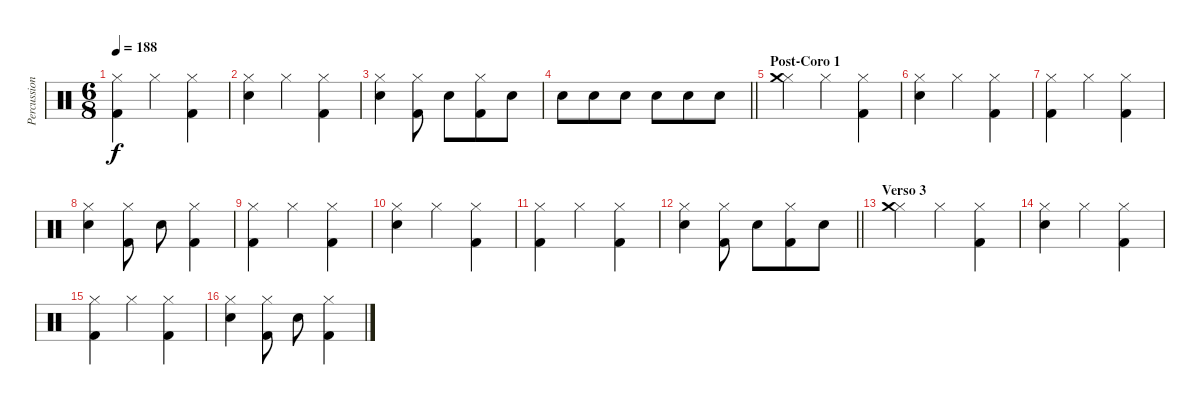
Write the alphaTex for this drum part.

\track ("Percussion" "Percussion") {instrument percussion}
\staff {score}
\articulation defaults
\ts (6 8)
\tempo 188
\clef neutral
\ks c
("Hi-Hat (closed)" "Kick (hit) 2").4{dy f} "Hi-Hat (closed)".4 ("Hi-Hat (closed)" "Kick (hit) 2").4 |
("Hi-Hat (closed)" "Snare (hit) 2").4 "Hi-Hat (closed)".4 ("Hi-Hat (closed)" "Kick (hit) 2").4 |
("Hi-Hat (closed)" "Snare (hit) 2").4 ("Hi-Hat (closed)" "Kick (hit) 2").8 "Electric Snare (hit)".8 ("Hi-Hat (closed)" "Kick (hit) 2").8 "Electric Snare (hit)".8 |
\barLineRight lightlight "Snare (hit) 2".8 "Snare (hit) 2".8 "Snare (hit) 2".8 "Snare (hit) 2".8 "Snare (hit) 2".8 "Snare (hit) 2".8
|
\section ("" "Post-Coro 1")
("Hi-Hat (closed)" "Crash medium (hit)").4 "Hi-Hat (closed)".4 ("Hi-Hat (closed)" "Kick (hit) 2").4 |
("Hi-Hat (closed)" "Snare (hit) 2").4 "Hi-Hat (closed)".4 ("Hi-Hat (closed)" "Kick (hit) 2").4 |
("Hi-Hat (closed)" "Kick (hit) 2").4 "Hi-Hat (closed)".4 ("Hi-Hat (closed)" "Kick (hit) 2").4 |
("Hi-Hat (closed)" "Snare (hit) 2").4 ("Hi-Hat (closed)" "Kick (hit) 2").8 "Electric Snare (hit)".8 ("Hi-Hat (closed)" "Kick (hit) 2").4 |
("Hi-Hat (closed)" "Kick (hit) 2").4 "Hi-Hat (closed)".4 ("Hi-Hat (closed)" "Kick (hit) 2").4 |
("Hi-Hat (closed)" "Snare (hit) 2").4 "Hi-Hat (closed)".4 ("Hi-Hat (closed)" "Kick (hit) 2").4 |
("Hi-Hat (closed)" "Kick (hit) 2").4 "Hi-Hat (closed)".4 ("Hi-Hat (closed)" "Kick (hit) 2").4 |
\barLineRight lightlight
("Hi-Hat (closed)" "Snare (hit) 2").4 ("Hi-Hat (closed)" "Kick (hit) 2").8 "Electric Snare (hit)".8 ("Hi-Hat (closed)" "Kick (hit) 2").8 "Electric Snare (hit)".8 |
\section ("" "Verso 3")
("Hi-Hat (closed)" "Crash medium (hit)").4 "Hi-Hat (closed)".4 ("Hi-Hat (closed)" "Kick (hit) 2").4 |
("Hi-Hat (closed)" "Snare (hit) 2").4 "Hi-Hat (closed)".4 ("Hi-Hat (closed)" "Kick (hit) 2").4 |
("Hi-Hat (closed)" "Kick (hit) 2").4 "Hi-Hat (closed)".4 ("Hi-Hat (closed)" "Kick (hit) 2").4 |
("Hi-Hat (closed)" "Snare (hit) 2").4 ("Hi-Hat (closed)" "Kick (hit) 2").8 "Electric Snare (hit)".8 ("Hi-Hat (closed)" "Kick (hit) 2").4
